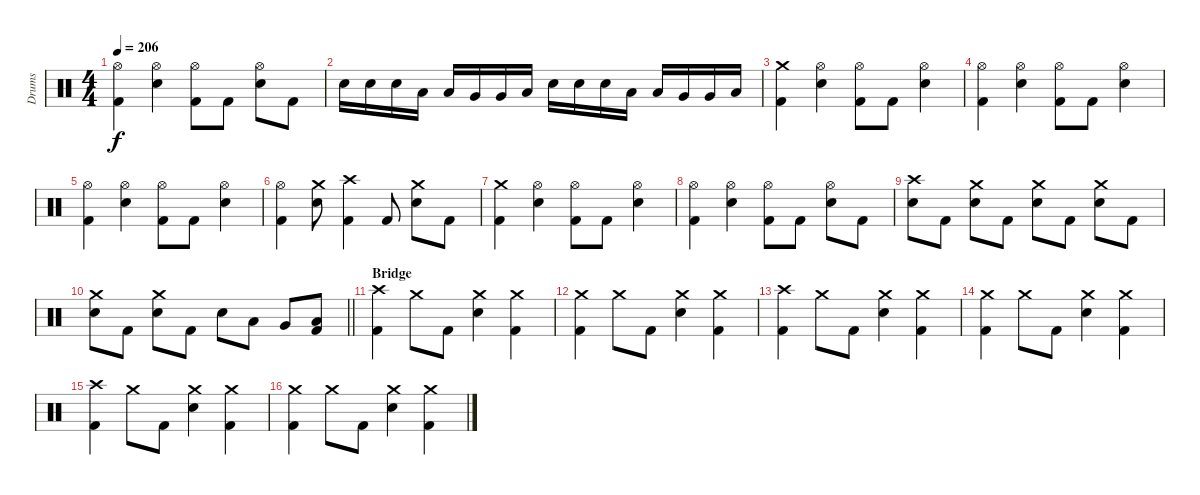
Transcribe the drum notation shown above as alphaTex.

\track ("Drums" "Drums") {instrument percussion}
\staff {score}
\articulation defaults
\ts (4 4)
\tempo 206
\clef neutral
\ks c
("Hi-Hat (open)" "Kick (hit) 2").4{dy f} ("Hi-Hat (open)" "Electric Snare (hit)").4 ("Hi-Hat (open)" "Kick (hit) 2").8 "Kick (hit) 2".8 ("Hi-Hat (open)" "Electric Snare (hit)").8 "Kick (hit) 2".8 |
"Electric Snare (hit)".16 "Electric Snare (hit)".16 "Electric Snare (hit)".16 "Low Tom (hit)".16 "Low Tom (hit)".16 "Very Low Tom (hit)".16 "Very Low Tom (hit)".16 "Low Floor Tom (hit)".16 "Electric Snare (hit)".16 "Electric Snare (hit)".16 "Electric Snare (hit)".16 "Low Tom (hit)".16 "Low Tom (hit)".16 "Very Low Tom (hit)".16 "Very Low Tom (hit)".16 "Low Floor Tom (hit)".16 |
("Crash medium (hit)" "Kick (hit) 2").4 ("Hi-Hat (open)" "Electric Snare (hit)").4 ("Hi-Hat (open)" "Kick (hit) 2").8 "Kick (hit) 2".8 ("Hi-Hat (open)" "Electric Snare (hit)").4 |
("Hi-Hat (open)" "Kick (hit) 2").4 ("Hi-Hat (open)" "Electric Snare (hit)").4 ("Hi-Hat (open)" "Kick (hit) 2").8 "Kick (hit) 2".8 ("Hi-Hat (open)" "Electric Snare (hit)").4 |
("Hi-Hat (open)" "Kick (hit) 2").4 ("Hi-Hat (open)" "Electric Snare (hit)").4 ("Hi-Hat (open)" "Kick (hit) 2").8 "Kick (hit) 2".8 ("Hi-Hat (open)" "Electric Snare (hit)").4 |
("Hi-Hat (open)" "Kick (hit) 2").4 ("Crash medium (hit)" "Electric Snare (hit)").8 ("Crash high (hit)" "Kick (hit) 2").4 "Kick (hit) 2".8 ("Crash medium (hit)" "Electric Snare (hit)").8 "Kick (hit) 2".8 |
("Crash medium (hit)" "Kick (hit) 2").4 ("Hi-Hat (open)" "Electric Snare (hit)").4 ("Hi-Hat (open)" "Kick (hit) 2").8 "Kick (hit) 2".8 ("Hi-Hat (open)" "Electric Snare (hit)").4 |
("Hi-Hat (open)" "Kick (hit) 2").4 ("Hi-Hat (open)" "Electric Snare (hit)").4 ("Hi-Hat (open)" "Kick (hit) 2").8 "Kick (hit) 2".8 ("Hi-Hat (open)" "Electric Snare (hit)").8 "Kick (hit) 2".8 |
("Crash high (hit)" "Electric Snare (hit)").8 "Kick (hit) 2".8 ("Crash medium (hit)" "Electric Snare (hit)").8 "Kick (hit) 2".8 ("Crash medium (hit)" "Electric Snare (hit)").8 "Kick (hit) 2".8 ("Crash medium (hit)" "Electric Snare (hit)").8 "Kick (hit) 2".8 |
\barLineRight lightlight
("Crash medium (hit)" "Electric Snare (hit)").8 "Kick (hit) 2".8 ("Crash medium (hit)" "Electric Snare (hit)").8 "Kick (hit) 2".8 "Electric Snare (hit)".8 "Low Tom (hit)".8 "Very Low Tom (hit)".8 ("Low Floor Tom (hit)" "Kick (hit) 2").8 |
\section ("" "Bridge")
("Crash high (hit)" "Kick (hit) 2").4 "Crash medium (hit)".8 "Kick (hit) 2".8 ("Crash medium (hit)" "Electric Snare (hit)").4 ("Crash medium (hit)" "Kick (hit) 2").4 |
("Crash medium (hit)" "Kick (hit) 2").4 "Crash medium (hit)".8 "Kick (hit) 2".8 ("Crash medium (hit)" "Electric Snare (hit)").4 ("Crash medium (hit)" "Kick (hit) 2").4 |
("Crash high (hit)" "Kick (hit) 2").4 "Crash medium (hit)".8 "Kick (hit) 2".8 ("Crash medium (hit)" "Electric Snare (hit)").4 ("Crash medium (hit)" "Kick (hit) 2").4 |
("Crash medium (hit)" "Kick (hit) 2").4 "Crash medium (hit)".8 "Kick (hit) 2".8 ("Crash medium (hit)" "Electric Snare (hit)").4 ("Crash medium (hit)" "Kick (hit) 2").4 |
("Crash high (hit)" "Kick (hit) 2").4 "Crash medium (hit)".8 "Kick (hit) 2".8 ("Crash medium (hit)" "Electric Snare (hit)").4 ("Crash medium (hit)" "Kick (hit) 2").4 |
("Crash medium (hit)" "Kick (hit) 2").4 "Crash medium (hit)".8 "Kick (hit) 2".8 ("Crash medium (hit)" "Electric Snare (hit)").4 ("Crash medium (hit)" "Kick (hit) 2").4
